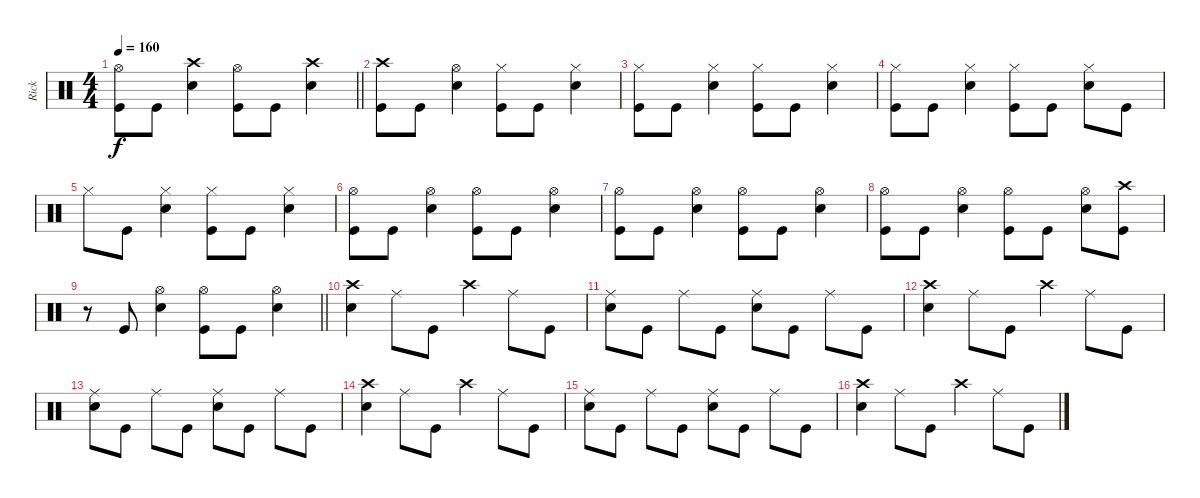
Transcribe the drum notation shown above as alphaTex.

\track ("Rick" "Rick") {instrument percussion}
\staff {score}
\articulation defaults
\ts (4 4)
\tempo 160
\clef neutral
\barLineRight lightlight
\ks c
("Hi-Hat (open)" "Kick (hit)").8{dy f} "Kick (hit)".8 ("Crash high (hit)" "Snare (hit) 2").4 ("Hi-Hat (open)" "Kick (hit)").8 "Kick (hit)".8 ("Crash high (hit)" "Snare (hit) 2").4 |
("Crash high (hit)" "Kick (hit)").8 "Kick (hit)".8 ("Hi-Hat (open)" "Snare (hit) 2").4 ("Hi-Hat (closed)" "Kick (hit)").8 "Kick (hit)".8 ("Hi-Hat (closed)" "Snare (hit) 2").4 |
("Hi-Hat (closed)" "Kick (hit)").8 "Kick (hit)".8 ("Hi-Hat (closed)" "Snare (hit) 2").4 ("Hi-Hat (closed)" "Kick (hit)").8 "Kick (hit)".8 ("Hi-Hat (closed)" "Snare (hit) 2").4 |
("Hi-Hat (closed)" "Kick (hit)").8 "Kick (hit)".8 ("Hi-Hat (closed)" "Snare (hit) 2").4 ("Hi-Hat (closed)" "Kick (hit)").8 "Kick (hit)".8 ("Hi-Hat (closed)" "Snare (hit) 2").8 "Kick (hit)".8 |
"Hi-Hat (closed)".8 "Kick (hit)".8 ("Hi-Hat (closed)" "Snare (hit) 2").4 ("Hi-Hat (closed)" "Kick (hit)").8 "Kick (hit)".8 ("Hi-Hat (closed)" "Snare (hit) 2").4 |
("Hi-Hat (open)" "Kick (hit)").8 "Kick (hit)".8 ("Hi-Hat (open)" "Snare (hit) 2").4 ("Hi-Hat (open)" "Kick (hit)").8 "Kick (hit)".8 ("Hi-Hat (open)" "Snare (hit) 2").4 |
("Hi-Hat (open)" "Kick (hit)").8 "Kick (hit)".8 ("Hi-Hat (open)" "Snare (hit) 2").4 ("Hi-Hat (open)" "Kick (hit)").8 "Kick (hit)".8 ("Hi-Hat (open)" "Snare (hit) 2").4 |
("Hi-Hat (open)" "Kick (hit)").8 "Kick (hit)".8 ("Hi-Hat (open)" "Snare (hit) 2").4 ("Hi-Hat (open)" "Kick (hit)").8 "Kick (hit)".8 ("Hi-Hat (open)" "Snare (hit) 2").8 ("Crash high (hit)" "Kick (hit)").8 |
\barLineRight lightlight
r.8 "Kick (hit)".8 ("Hi-Hat (open)" "Snare (hit) 2").4 ("Hi-Hat (open)" "Kick (hit)").8 "Kick (hit)".8 ("Hi-Hat (open)" "Snare (hit) 2").4 |
("Crash high (hit)" "Snare (hit) 2").4 "Ride (middle)".8 "Kick (hit)".8 "Crash high (hit)".4 "Ride (middle)".8 "Kick (hit)".8 |
("Ride (middle)" "Snare (hit) 2").8 "Kick (hit)".8 "Ride (middle)".8 "Kick (hit)".8 ("Ride (middle)" "Snare (hit) 2").8 "Kick (hit)".8 "Ride (middle)".8 "Kick (hit)".8 |
("Crash high (hit)" "Snare (hit) 2").4 "Ride (middle)".8 "Kick (hit)".8 "Crash high (hit)".4 "Ride (middle)".8 "Kick (hit)".8 |
("Ride (middle)" "Snare (hit) 2").8 "Kick (hit)".8 "Ride (middle)".8 "Kick (hit)".8 ("Ride (middle)" "Snare (hit) 2").8 "Kick (hit)".8 "Ride (middle)".8 "Kick (hit)".8 |
("Crash high (hit)" "Snare (hit) 2").4 "Ride (middle)".8 "Kick (hit)".8 "Crash high (hit)".4 "Ride (middle)".8 "Kick (hit)".8 |
("Ride (middle)" "Snare (hit) 2").8 "Kick (hit)".8 "Ride (middle)".8 "Kick (hit)".8 ("Ride (middle)" "Snare (hit) 2").8 "Kick (hit)".8 "Ride (middle)".8 "Kick (hit)".8 |
("Crash high (hit)" "Snare (hit) 2").4 "Ride (middle)".8 "Kick (hit)".8 "Crash high (hit)".4 "Ride (middle)".8 "Kick (hit)".8
